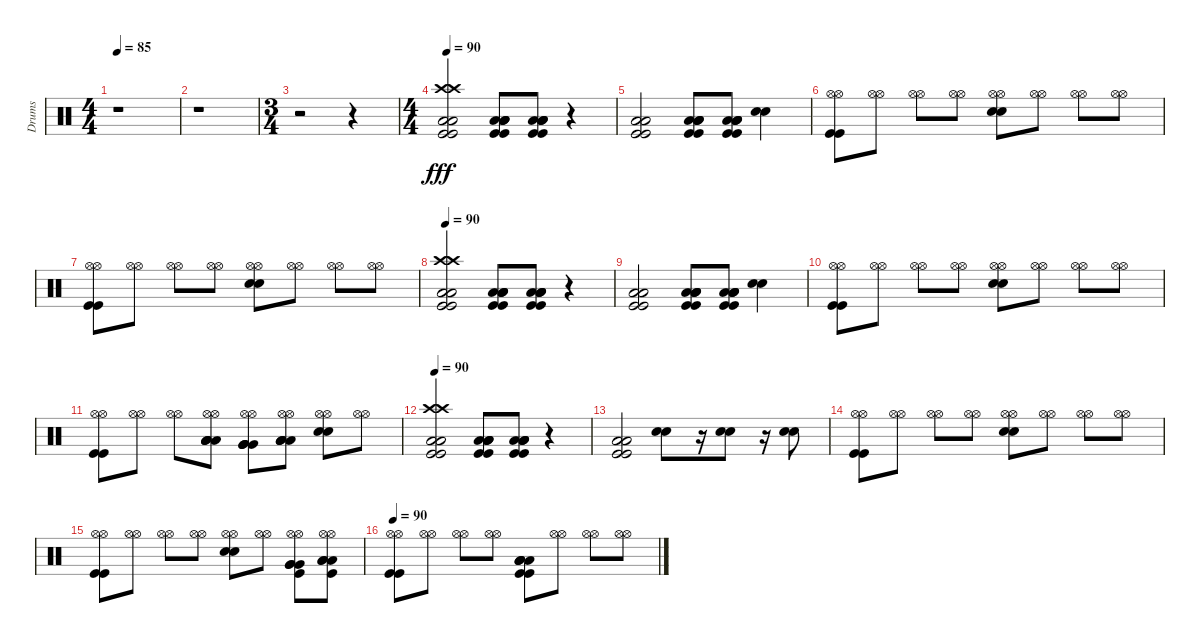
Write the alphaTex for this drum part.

\track ("Drums" "Drums") {instrument percussion}
\staff {score}
\articulation defaults
\ts (4 4)
\tempo 85
\clef neutral
\ks c
r.1{dy fff} |
r.1 |
\ts (3 4)
r.2 r.4 |
\ts (4 4)
\tempo 90
("Kick (hit)" "Crash high (hit)" "Low Floor Tom (hit)" "Low Floor Tom (hit)" "Crash high (hit)" "Kick (hit)").2 ("Kick (hit)" "Low Floor Tom (hit)" "Low Floor Tom (hit)" "Low Floor Tom (hit)" "Low Floor Tom (hit)" "Kick (hit)").8 ("Kick (hit)" "Low Floor Tom (hit)" "Low Floor Tom (hit)" "Low Floor Tom (hit)" "Low Floor Tom (hit)" "Kick (hit)").8 r.4 |
("Kick (hit)" "Low Floor Tom (hit)" "Low Floor Tom (hit)" "Kick (hit)").2 ("Kick (hit)" "Low Floor Tom (hit)" "Low Floor Tom (hit)" "Low Floor Tom (hit)" "Low Floor Tom (hit)" "Kick (hit)").8 ("Kick (hit)" "Low Floor Tom (hit)" "Low Floor Tom (hit)" "Low Floor Tom (hit)" "Low Floor Tom (hit)" "Kick (hit)").8 ("Electric Snare (hit)" "Electric Snare (hit)").4 |
("Kick (hit)" "Hi-Hat (open)" "Hi-Hat (open)" "Kick (hit)").8 ("Hi-Hat (open)" "Hi-Hat (open)").8 ("Hi-Hat (open)" "Hi-Hat (open)").8 ("Hi-Hat (open)" "Hi-Hat (open)").8 ("Electric Snare (hit)" "Hi-Hat (open)" "Hi-Hat (open)" "Electric Snare (hit)").8 ("Hi-Hat (open)" "Hi-Hat (open)").8 ("Hi-Hat (open)" "Hi-Hat (open)").8 ("Hi-Hat (open)" "Hi-Hat (open)").8 |
("Kick (hit)" "Hi-Hat (open)" "Hi-Hat (open)" "Kick (hit)").8 ("Hi-Hat (open)" "Hi-Hat (open)").8 ("Hi-Hat (open)" "Hi-Hat (open)").8 ("Hi-Hat (open)" "Hi-Hat (open)").8 ("Electric Snare (hit)" "Hi-Hat (open)" "Hi-Hat (open)" "Electric Snare (hit)").8 ("Hi-Hat (open)" "Hi-Hat (open)").8 ("Hi-Hat (open)" "Hi-Hat (open)").8 ("Hi-Hat (open)" "Hi-Hat (open)").8 |
\tempo 90
("Kick (hit)" "Crash high (hit)" "Low Floor Tom (hit)" "Low Floor Tom (hit)" "Crash high (hit)" "Kick (hit)").2 ("Kick (hit)" "Low Floor Tom (hit)" "Low Floor Tom (hit)" "Low Floor Tom (hit)" "Low Floor Tom (hit)" "Kick (hit)").8 ("Kick (hit)" "Low Floor Tom (hit)" "Low Floor Tom (hit)" "Low Floor Tom (hit)" "Low Floor Tom (hit)" "Kick (hit)").8 r.4 |
("Kick (hit)" "Low Floor Tom (hit)" "Low Floor Tom (hit)" "Kick (hit)").2 ("Kick (hit)" "Low Floor Tom (hit)" "Low Floor Tom (hit)" "Low Floor Tom (hit)" "Low Floor Tom (hit)" "Kick (hit)").8 ("Kick (hit)" "Low Floor Tom (hit)" "Low Floor Tom (hit)" "Low Floor Tom (hit)" "Low Floor Tom (hit)" "Kick (hit)").8 ("Electric Snare (hit)" "Electric Snare (hit)").4 |
("Kick (hit)" "Hi-Hat (open)" "Hi-Hat (open)" "Kick (hit)").8 ("Hi-Hat (open)" "Hi-Hat (open)").8 ("Hi-Hat (open)" "Hi-Hat (open)").8 ("Hi-Hat (open)" "Hi-Hat (open)").8 ("Electric Snare (hit)" "Hi-Hat (open)" "Hi-Hat (open)" "Electric Snare (hit)").8 ("Hi-Hat (open)" "Hi-Hat (open)").8 ("Hi-Hat (open)" "Hi-Hat (open)").8 ("Hi-Hat (open)" "Hi-Hat (open)").8 |
("Kick (hit)" "Hi-Hat (open)" "Hi-Hat (open)" "Kick (hit)").8 ("Hi-Hat (open)" "Hi-Hat (open)").8 ("Hi-Hat (open)" "Hi-Hat (open)").8 ("Low Tom (hit)" "Low Tom (hit)" "Hi-Hat (open)" "Hi-Hat (open)" "Low Tom (hit)" "Low Tom (hit)").8 ("Very Low Tom (hit)" "Very Low Tom (hit)" "Hi-Hat (open)" "Hi-Hat (open)" "Very Low Tom (hit)" "Very Low Tom (hit)").8 ("Low Floor Tom (hit)" "Low Floor Tom (hit)" "Hi-Hat (open)" "Hi-Hat (open)" "Low Floor Tom (hit)" "Low Floor Tom (hit)").8 ("Electric Snare (hit)" "Hi-Hat (open)" "Hi-Hat (open)" "Electric Snare (hit)").8 ("Hi-Hat (open)" "Hi-Hat (open)").8 |
\tempo 90
("Kick (hit)" "Crash high (hit)" "Low Floor Tom (hit)" "Low Floor Tom (hit)" "Crash high (hit)" "Kick (hit)").2 ("Kick (hit)" "Low Floor Tom (hit)" "Low Floor Tom (hit)" "Low Floor Tom (hit)" "Low Floor Tom (hit)" "Kick (hit)").8 ("Kick (hit)" "Low Floor Tom (hit)" "Low Floor Tom (hit)" "Low Floor Tom (hit)" "Low Floor Tom (hit)" "Kick (hit)").8 r.4 |
("Kick (hit)" "Low Floor Tom (hit)" "Low Floor Tom (hit)" "Kick (hit)").2 ("Electric Snare (hit)" "Electric Snare (hit)").8 r.16 ("Electric Snare (hit)" "Electric Snare (hit)").8 r.16 ("Electric Snare (hit)" "Electric Snare (hit)").8 |
("Kick (hit)" "Hi-Hat (open)" "Hi-Hat (open)" "Kick (hit)").8 ("Hi-Hat (open)" "Hi-Hat (open)").8 ("Hi-Hat (open)" "Hi-Hat (open)").8 ("Hi-Hat (open)" "Hi-Hat (open)").8 ("Electric Snare (hit)" "Hi-Hat (open)" "Hi-Hat (open)" "Electric Snare (hit)").8 ("Hi-Hat (open)" "Hi-Hat (open)").8 ("Hi-Hat (open)" "Hi-Hat (open)").8 ("Hi-Hat (open)" "Hi-Hat (open)").8 |
("Kick (hit)" "Hi-Hat (open)" "Hi-Hat (open)" "Kick (hit)").8 ("Hi-Hat (open)" "Hi-Hat (open)").8 ("Hi-Hat (open)" "Hi-Hat (open)").8 ("Hi-Hat (open)" "Hi-Hat (open)").8 ("Electric Snare (hit)" "Hi-Hat (open)" "Hi-Hat (open)" "Electric Snare (hit)").8 ("Hi-Hat (open)" "Hi-Hat (open)").8 ("Kick (hit)" "Very Low Tom (hit)" "Hi-Hat (open)" "Hi-Hat (open)" "Very Low Tom (hit)" "Very Low Tom (hit)").8 ("Kick (hit)" "Low Floor Tom (hit)" "Hi-Hat (open)" "Hi-Hat (open)" "Low Floor Tom (hit)" "Low Floor Tom (hit)").8 |
\tempo 90
("Kick (hit)" "Hi-Hat (open)" "Hi-Hat (open)" "Kick (hit)").8 ("Hi-Hat (open)" "Hi-Hat (open)").8 ("Hi-Hat (open)" "Hi-Hat (open)").8 ("Hi-Hat (open)" "Hi-Hat (open)").8 ("Kick (hit)" "Low Floor Tom (hit)" "Low Floor Tom (hit)" "Low Floor Tom (hit)" "Low Floor Tom (hit)" "Kick (hit)").8 ("Hi-Hat (open)" "Hi-Hat (open)").8 ("Hi-Hat (open)" "Hi-Hat (open)").8 ("Hi-Hat (open)" "Hi-Hat (open)").8
